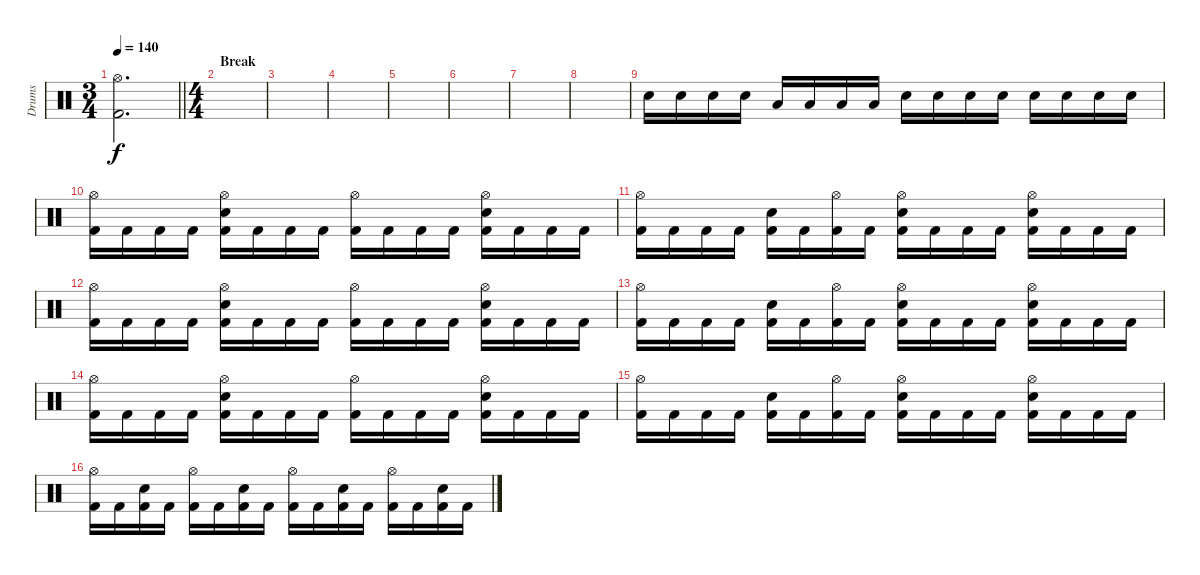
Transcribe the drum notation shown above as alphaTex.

\track ("Drums" "Drums") {instrument percussion}
\staff {score}
\articulation defaults
\ts (3 4)
\tempo 140
\clef neutral
\barLineRight lightlight
\ks c
("Hi-Hat (open)" "Kick (hit) 2").2{d dy f} |
\ts (4 4)
\section ("" "Break")
|
|
|
|
|
|
|
"Snare (hit) 2".16 "Snare (hit) 2".16 "Snare (hit) 2".16 "Snare (hit) 2".16 "Low Floor Tom (hit)".16 "Low Floor Tom (hit)".16 "Low Floor Tom (hit)".16 "Low Floor Tom (hit)".16 "Electric Snare (hit)".16 "Electric Snare (hit)".16 "Electric Snare (hit)".16 "Electric Snare (hit)".16 "Snare (hit) 2".16 "Snare (hit) 2".16 "Snare (hit) 2".16 "Snare (hit) 2".16 |
("Hi-Hat (open)" "Kick (hit) 2").16 "Kick (hit) 2".16 "Kick (hit) 2".16 "Kick (hit) 2".16 ("Hi-Hat (open)" "Snare (hit) 2" "Kick (hit) 2").16 "Kick (hit) 2".16 "Kick (hit) 2".16 "Kick (hit) 2".16 ("Hi-Hat (open)" "Kick (hit) 2").16 "Kick (hit) 2".16 "Kick (hit) 2".16 "Kick (hit) 2".16 ("Hi-Hat (open)" "Snare (hit) 2" "Kick (hit) 2").16 "Kick (hit) 2".16 "Kick (hit) 2".16 "Kick (hit) 2".16 |
("Hi-Hat (open)" "Kick (hit) 2").16 "Kick (hit) 2".16 "Kick (hit) 2".16 "Kick (hit) 2".16 ("Snare (hit) 2" "Kick (hit) 2").16 "Kick (hit) 2".16 ("Hi-Hat (open)" "Kick (hit) 2").16 "Kick (hit) 2".16 ("Hi-Hat (open)" "Snare (hit) 2" "Kick (hit) 2").16 "Kick (hit) 2".16 "Kick (hit) 2".16 "Kick (hit) 2".16 ("Hi-Hat (open)" "Snare (hit) 2" "Kick (hit) 2").16 "Kick (hit) 2".16 "Kick (hit) 2".16 "Kick (hit) 2".16 |
("Hi-Hat (open)" "Kick (hit) 2").16 "Kick (hit) 2".16 "Kick (hit) 2".16 "Kick (hit) 2".16 ("Hi-Hat (open)" "Snare (hit) 2" "Kick (hit) 2").16 "Kick (hit) 2".16 "Kick (hit) 2".16 "Kick (hit) 2".16 ("Hi-Hat (open)" "Kick (hit) 2").16 "Kick (hit) 2".16 "Kick (hit) 2".16 "Kick (hit) 2".16 ("Hi-Hat (open)" "Snare (hit) 2" "Kick (hit) 2").16 "Kick (hit) 2".16 "Kick (hit) 2".16 "Kick (hit) 2".16 |
("Hi-Hat (open)" "Kick (hit) 2").16 "Kick (hit) 2".16 "Kick (hit) 2".16 "Kick (hit) 2".16 ("Snare (hit) 2" "Kick (hit) 2").16 "Kick (hit) 2".16 ("Hi-Hat (open)" "Kick (hit) 2").16 "Kick (hit) 2".16 ("Hi-Hat (open)" "Snare (hit) 2" "Kick (hit) 2").16 "Kick (hit) 2".16 "Kick (hit) 2".16 "Kick (hit) 2".16 ("Hi-Hat (open)" "Snare (hit) 2" "Kick (hit) 2").16 "Kick (hit) 2".16 "Kick (hit) 2".16 "Kick (hit) 2".16 |
("Hi-Hat (open)" "Kick (hit) 2").16 "Kick (hit) 2".16 "Kick (hit) 2".16 "Kick (hit) 2".16 ("Hi-Hat (open)" "Snare (hit) 2" "Kick (hit) 2").16 "Kick (hit) 2".16 "Kick (hit) 2".16 "Kick (hit) 2".16 ("Hi-Hat (open)" "Kick (hit) 2").16 "Kick (hit) 2".16 "Kick (hit) 2".16 "Kick (hit) 2".16 ("Hi-Hat (open)" "Snare (hit) 2" "Kick (hit) 2").16 "Kick (hit) 2".16 "Kick (hit) 2".16 "Kick (hit) 2".16 |
("Hi-Hat (open)" "Kick (hit) 2").16 "Kick (hit) 2".16 "Kick (hit) 2".16 "Kick (hit) 2".16 ("Snare (hit) 2" "Kick (hit) 2").16 "Kick (hit) 2".16 ("Hi-Hat (open)" "Kick (hit) 2").16 "Kick (hit) 2".16 ("Hi-Hat (open)" "Snare (hit) 2" "Kick (hit) 2").16 "Kick (hit) 2".16 "Kick (hit) 2".16 "Kick (hit) 2".16 ("Hi-Hat (open)" "Snare (hit) 2" "Kick (hit) 2").16 "Kick (hit) 2".16 "Kick (hit) 2".16 "Kick (hit) 2".16 |
("Hi-Hat (open)" "Kick (hit) 2").16 "Kick (hit) 2".16 ("Snare (hit) 2" "Kick (hit) 2").16 "Kick (hit) 2".16 ("Hi-Hat (open)" "Kick (hit) 2").16 "Kick (hit) 2".16 ("Snare (hit) 2" "Kick (hit) 2").16 "Kick (hit) 2".16 ("Hi-Hat (open)" "Kick (hit) 2").16 "Kick (hit) 2".16 ("Snare (hit) 2" "Kick (hit) 2").16 "Kick (hit) 2".16 ("Hi-Hat (open)" "Kick (hit) 2").16 "Kick (hit) 2".16 ("Snare (hit) 2" "Kick (hit) 2").16 "Kick (hit) 2".16
